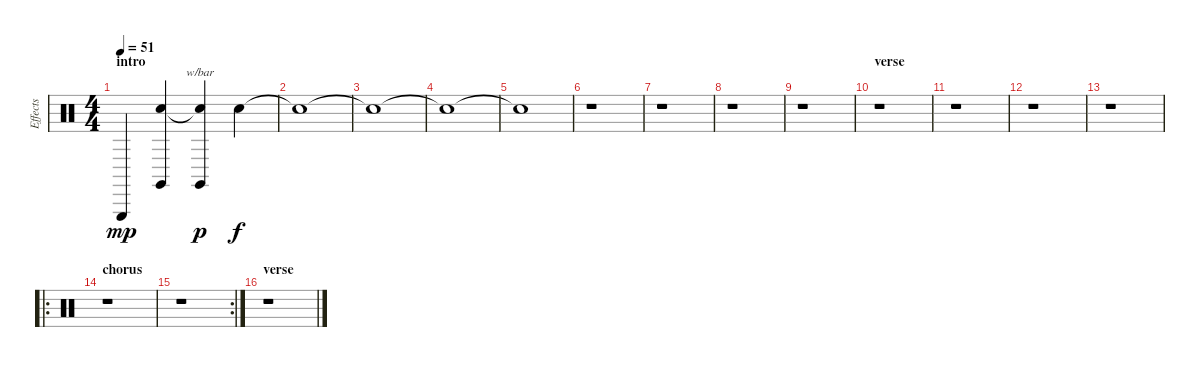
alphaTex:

\track ("Effects" "Effects") {instrument percussion}
\staff {score}
\articulation defaults
\ts (4 4)
\section ("" "intro")
\tempo 51
\clef neutral
\ks c "Triangle (hit)".4{dy mp}
("Claves (hit)" "Snare (hit)").4 ("Claves (hit)" "Snare (hit)"{t}).4{tbe (custom default 0 -16 45 -16 60 0) dy p} "Snare (hit)"{t}.4{dy f} |
"Snare (hit)"{t}.1 |
"Snare (hit)"{t}.1 |
"Snare (hit)"{t}.1 |
"Snare (hit)"{t}.1 |
r.1 |
r.1 |
r.1 |
r.1 |
\section ("" "verse")
r.1 |
r.1 |
r.1 |
r.1 |
\ro
\section ("" "chorus")
r.1 |
\rc 2
r.1 |
\section ("" "verse")
r.1
